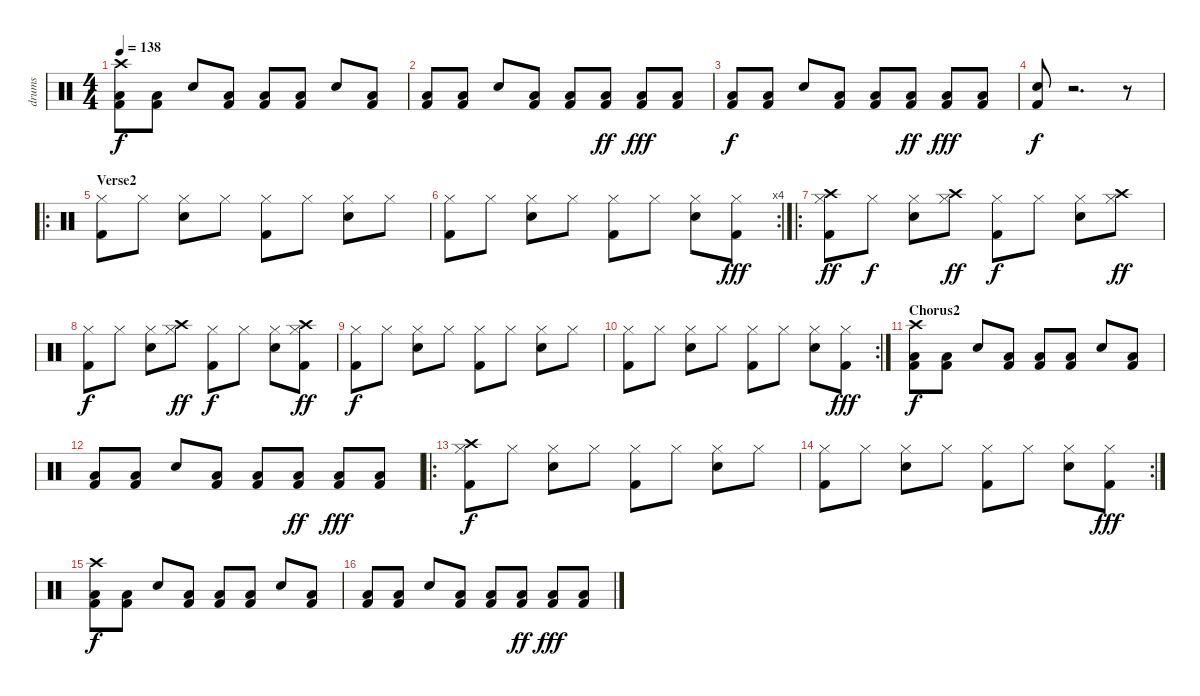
\track ("drums" "drums") {instrument percussion}
\staff {score}
\articulation defaults
\ts (4 4)
\tempo 138
\clef neutral
\ks c
("Crash high (hit)" "Low Floor Tom (hit)" "Kick (hit) 2").8{dy f} ("Low Floor Tom (hit)" "Kick (hit) 2").8 "Electric Snare (hit)".8 ("Low Floor Tom (hit)" "Kick (hit) 2").8 ("Low Floor Tom (hit)" "Kick (hit) 2").8 ("Low Floor Tom (hit)" "Kick (hit) 2").8 "Electric Snare (hit)".8 ("Low Floor Tom (hit)" "Kick (hit) 2").8 |
("Low Floor Tom (hit)" "Kick (hit) 2").8 ("Low Floor Tom (hit)" "Kick (hit) 2").8 "Electric Snare (hit)".8 ("Low Floor Tom (hit)" "Kick (hit) 2").8 ("Low Floor Tom (hit)" "Kick (hit) 2").8 ("Low Floor Tom (hit)" "Kick (hit) 2").8{dy ff} ("Low Floor Tom (hit)" "Kick (hit) 2").8{dy fff} ("Low Floor Tom (hit)" "Kick (hit) 2").8 |
("Low Floor Tom (hit)" "Kick (hit) 2").8{dy f} ("Low Floor Tom (hit)" "Kick (hit) 2").8 "Electric Snare (hit)".8 ("Low Floor Tom (hit)" "Kick (hit) 2").8 ("Low Floor Tom (hit)" "Kick (hit) 2").8 ("Low Floor Tom (hit)" "Kick (hit) 2").8{dy ff} ("Low Floor Tom (hit)" "Kick (hit) 2").8{dy fff} ("Low Floor Tom (hit)" "Kick (hit) 2").8 |
("Electric Snare (hit)" "Kick (hit) 2").8{dy f} r.2{d} r.8 |
\ro
\section ("" "Verse2")
("Hi-Hat (closed)" "Kick (hit) 2").8 "Hi-Hat (closed)".8 ("Hi-Hat (closed)" "Electric Snare (hit)").8 "Hi-Hat (closed)".8 ("Hi-Hat (closed)" "Kick (hit) 2").8 "Hi-Hat (closed)".8 ("Hi-Hat (closed)" "Electric Snare (hit)").8 "Hi-Hat (closed)".8 |
\rc 4
("Hi-Hat (closed)" "Kick (hit) 2").8 "Hi-Hat (closed)".8 ("Hi-Hat (closed)" "Electric Snare (hit)").8 "Hi-Hat (closed)".8 ("Hi-Hat (closed)" "Kick (hit) 2").8 "Hi-Hat (closed)".8 ("Hi-Hat (closed)" "Electric Snare (hit)").8 ("Hi-Hat (closed)" "Kick (hit) 2").8{dy fff} |
\ro
("Crash high (hit)" "Hi-Hat (closed)" "Kick (hit) 2").8{dy ff} "Hi-Hat (closed)".8{dy f} ("Hi-Hat (closed)" "Electric Snare (hit)").8 ("Crash high (hit)" "Hi-Hat (closed)").8{dy ff} ("Hi-Hat (closed)" "Kick (hit) 2").8{dy f} "Hi-Hat (closed)".8 ("Hi-Hat (closed)" "Electric Snare (hit)").8 ("Crash high (hit)" "Hi-Hat (closed)").8{dy ff} |
("Hi-Hat (closed)" "Kick (hit) 2").8{dy f} "Hi-Hat (closed)".8 ("Hi-Hat (closed)" "Electric Snare (hit)").8 ("Crash high (hit)" "Hi-Hat (closed)").8{dy ff} ("Hi-Hat (closed)" "Kick (hit) 2").8{dy f} "Hi-Hat (closed)".8 ("Hi-Hat (closed)" "Electric Snare (hit)").8 ("Crash high (hit)" "Hi-Hat (closed)" "Kick (hit) 2").8{dy ff} |
("Hi-Hat (closed)" "Kick (hit) 2").8{dy f} "Hi-Hat (closed)".8 ("Hi-Hat (closed)" "Electric Snare (hit)").8 "Hi-Hat (closed)".8 ("Hi-Hat (closed)" "Kick (hit) 2").8 "Hi-Hat (closed)".8 ("Hi-Hat (closed)" "Electric Snare (hit)").8 "Hi-Hat (closed)".8 |
\rc 2
("Hi-Hat (closed)" "Kick (hit) 2").8 "Hi-Hat (closed)".8 ("Hi-Hat (closed)" "Electric Snare (hit)").8 "Hi-Hat (closed)".8 ("Hi-Hat (closed)" "Kick (hit) 2").8 "Hi-Hat (closed)".8 ("Hi-Hat (closed)" "Electric Snare (hit)").8 ("Hi-Hat (closed)" "Kick (hit) 2").8{dy fff} |
\section ("" "Chorus2")
("Crash high (hit)" "Low Floor Tom (hit)" "Kick (hit) 2").8{dy f} ("Low Floor Tom (hit)" "Kick (hit) 2").8 "Electric Snare (hit)".8 ("Low Floor Tom (hit)" "Kick (hit) 2").8 ("Low Floor Tom (hit)" "Kick (hit) 2").8 ("Low Floor Tom (hit)" "Kick (hit) 2").8 "Electric Snare (hit)".8 ("Low Floor Tom (hit)" "Kick (hit) 2").8 |
("Low Floor Tom (hit)" "Kick (hit) 2").8 ("Low Floor Tom (hit)" "Kick (hit) 2").8 "Electric Snare (hit)".8 ("Low Floor Tom (hit)" "Kick (hit) 2").8 ("Low Floor Tom (hit)" "Kick (hit) 2").8 ("Low Floor Tom (hit)" "Kick (hit) 2").8{dy ff} ("Low Floor Tom (hit)" "Kick (hit) 2").8{dy fff} ("Low Floor Tom (hit)" "Kick (hit) 2").8 |
\ro
("Crash high (hit)" "Hi-Hat (closed)" "Kick (hit) 2").8{dy f} "Hi-Hat (closed)".8 ("Hi-Hat (closed)" "Electric Snare (hit)").8 "Hi-Hat (closed)".8 ("Hi-Hat (closed)" "Kick (hit) 2").8 "Hi-Hat (closed)".8 ("Hi-Hat (closed)" "Electric Snare (hit)").8 "Hi-Hat (closed)".8 |
\rc 2
("Hi-Hat (closed)" "Kick (hit) 2").8 "Hi-Hat (closed)".8 ("Hi-Hat (closed)" "Electric Snare (hit)").8 "Hi-Hat (closed)".8 ("Hi-Hat (closed)" "Kick (hit) 2").8 "Hi-Hat (closed)".8 ("Hi-Hat (closed)" "Electric Snare (hit)").8 ("Hi-Hat (closed)" "Kick (hit) 2").8{dy fff} |
("Crash high (hit)" "Low Floor Tom (hit)" "Kick (hit) 2").8{dy f} ("Low Floor Tom (hit)" "Kick (hit) 2").8 "Electric Snare (hit)".8 ("Low Floor Tom (hit)" "Kick (hit) 2").8 ("Low Floor Tom (hit)" "Kick (hit) 2").8 ("Low Floor Tom (hit)" "Kick (hit) 2").8 "Electric Snare (hit)".8 ("Low Floor Tom (hit)" "Kick (hit) 2").8 |
("Low Floor Tom (hit)" "Kick (hit) 2").8 ("Low Floor Tom (hit)" "Kick (hit) 2").8 "Electric Snare (hit)".8 ("Low Floor Tom (hit)" "Kick (hit) 2").8 ("Low Floor Tom (hit)" "Kick (hit) 2").8 ("Low Floor Tom (hit)" "Kick (hit) 2").8{dy ff} ("Low Floor Tom (hit)" "Kick (hit) 2").8{dy fff} ("Low Floor Tom (hit)" "Kick (hit) 2").8
